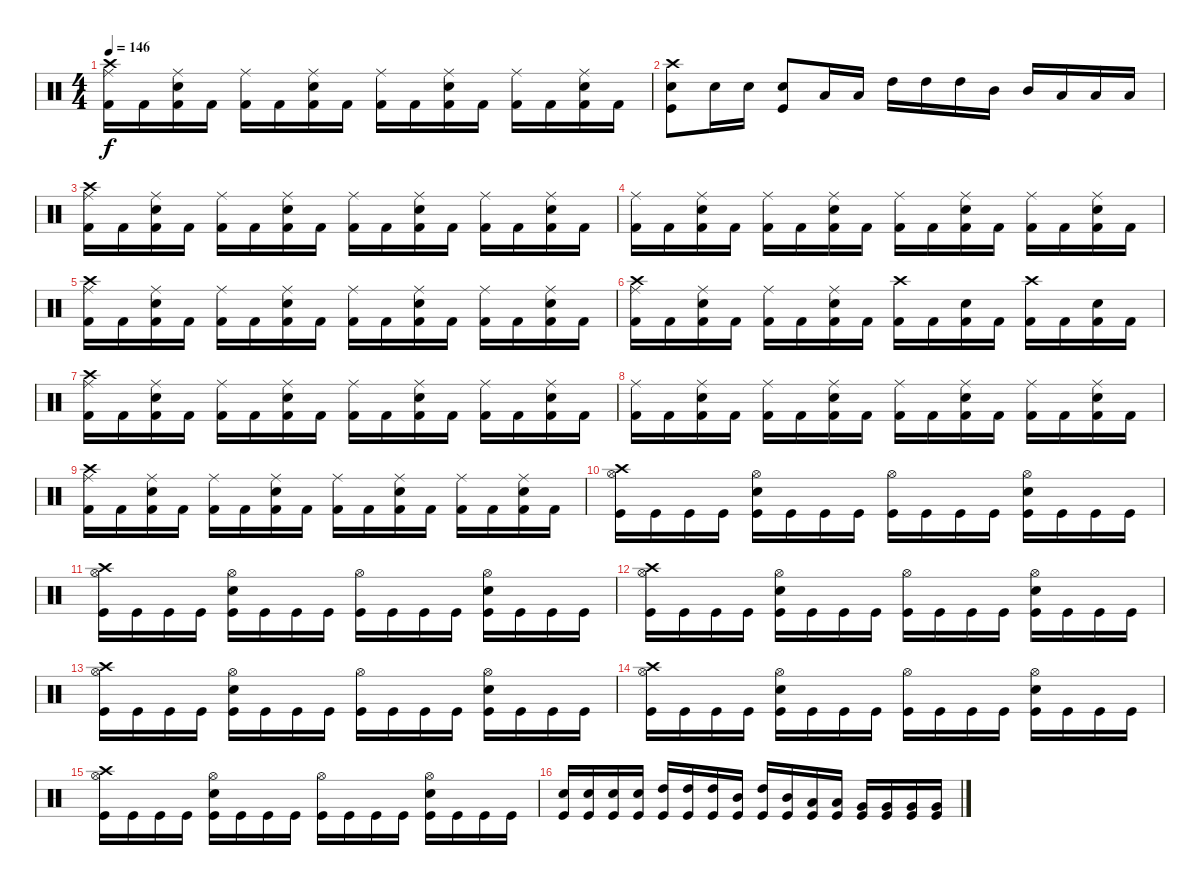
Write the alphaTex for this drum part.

\track "" {instrument percussion}
\staff {score}
\articulation defaults
\ts (4 4)
\tempo 146
\clef neutral
\ks c
("Crash high (hit)" "Ride (middle)" "Kick (hit) 2").16{dy f} "Kick (hit) 2".16 ("Electric Snare (hit)" "Ride (middle)" "Kick (hit) 2").16 "Kick (hit) 2".16 ("Ride (middle)" "Kick (hit) 2").16 "Kick (hit) 2".16 ("Electric Snare (hit)" "Ride (middle)" "Kick (hit) 2").16 "Kick (hit) 2".16 ("Ride (middle)" "Kick (hit) 2").16 "Kick (hit) 2".16 ("Electric Snare (hit)" "Ride (middle)" "Kick (hit) 2").16 "Kick (hit) 2".16 ("Ride (middle)" "Kick (hit) 2").16 "Kick (hit) 2".16 ("Electric Snare (hit)" "Ride (middle)" "Kick (hit) 2").16 "Kick (hit) 2".16 |
("Crash high (hit)" "Kick (hit)" "Snare (hit) 2").8 "Snare (hit) 2".16 "Snare (hit) 2".16 ("Snare (hit) 2" "Kick (hit)").8 "Low Tom (hit)".16 "Low Tom (hit)".16 "High Tom (hit)".16 "High Tom (hit)".16 "High Tom (hit)".16 "Mid Tom (hit)".16 "Mid Tom (hit)".16 "Low Tom (hit)".16 "Low Tom (hit)".16 "Low Tom (hit)".16 |
("Crash high (hit)" "Ride (middle)" "Kick (hit) 2").16 "Kick (hit) 2".16 ("Electric Snare (hit)" "Ride (middle)" "Kick (hit) 2").16 "Kick (hit) 2".16 ("Ride (middle)" "Kick (hit) 2").16 "Kick (hit) 2".16 ("Electric Snare (hit)" "Ride (middle)" "Kick (hit) 2").16 "Kick (hit) 2".16 ("Ride (middle)" "Kick (hit) 2").16 "Kick (hit) 2".16 ("Electric Snare (hit)" "Ride (middle)" "Kick (hit) 2").16 "Kick (hit) 2".16 ("Ride (middle)" "Kick (hit) 2").16 "Kick (hit) 2".16 ("Electric Snare (hit)" "Ride (middle)" "Kick (hit) 2").16 "Kick (hit) 2".16 |
("Ride (middle)" "Kick (hit) 2").16 "Kick (hit) 2".16 ("Electric Snare (hit)" "Ride (middle)" "Kick (hit) 2").16 "Kick (hit) 2".16 ("Ride (middle)" "Kick (hit) 2").16 "Kick (hit) 2".16 ("Electric Snare (hit)" "Ride (middle)" "Kick (hit) 2").16 "Kick (hit) 2".16 ("Ride (middle)" "Kick (hit) 2").16 "Kick (hit) 2".16 ("Electric Snare (hit)" "Ride (middle)" "Kick (hit) 2").16 "Kick (hit) 2".16 ("Ride (middle)" "Kick (hit) 2").16 "Kick (hit) 2".16 ("Electric Snare (hit)" "Ride (middle)" "Kick (hit) 2").16 "Kick (hit) 2".16 |
("Crash high (hit)" "Ride (middle)" "Kick (hit) 2").16 "Kick (hit) 2".16 ("Electric Snare (hit)" "Ride (middle)" "Kick (hit) 2").16 "Kick (hit) 2".16 ("Ride (middle)" "Kick (hit) 2").16 "Kick (hit) 2".16 ("Electric Snare (hit)" "Ride (middle)" "Kick (hit) 2").16 "Kick (hit) 2".16 ("Ride (middle)" "Kick (hit) 2").16 "Kick (hit) 2".16 ("Electric Snare (hit)" "Ride (middle)" "Kick (hit) 2").16 "Kick (hit) 2".16 ("Ride (middle)" "Kick (hit) 2").16 "Kick (hit) 2".16 ("Electric Snare (hit)" "Ride (middle)" "Kick (hit) 2").16 "Kick (hit) 2".16 |
("Crash high (hit)" "Ride (middle)" "Kick (hit) 2").16 "Kick (hit) 2".16 ("Electric Snare (hit)" "Ride (middle)" "Kick (hit) 2").16 "Kick (hit) 2".16 ("Ride (middle)" "Kick (hit) 2").16 "Kick (hit) 2".16 ("Electric Snare (hit)" "Ride (middle)" "Kick (hit) 2").16 "Kick (hit) 2".16 ("Kick (hit) 2" "Crash high (hit)").16 "Kick (hit) 2".16 ("Electric Snare (hit)" "Kick (hit) 2").16 "Kick (hit) 2".16 ("Kick (hit) 2" "Crash high (hit)").16 "Kick (hit) 2".16 ("Electric Snare (hit)" "Kick (hit) 2").16 "Kick (hit) 2".16 |
("Crash high (hit)" "Ride (middle)" "Kick (hit) 2").16 "Kick (hit) 2".16 ("Electric Snare (hit)" "Ride (middle)" "Kick (hit) 2").16 "Kick (hit) 2".16 ("Ride (middle)" "Kick (hit) 2").16 "Kick (hit) 2".16 ("Electric Snare (hit)" "Ride (middle)" "Kick (hit) 2").16 "Kick (hit) 2".16 ("Ride (middle)" "Kick (hit) 2").16 "Kick (hit) 2".16 ("Electric Snare (hit)" "Ride (middle)" "Kick (hit) 2").16 "Kick (hit) 2".16 ("Ride (middle)" "Kick (hit) 2").16 "Kick (hit) 2".16 ("Electric Snare (hit)" "Ride (middle)" "Kick (hit) 2").16 "Kick (hit) 2".16 |
("Ride (middle)" "Kick (hit) 2").16 "Kick (hit) 2".16 ("Electric Snare (hit)" "Ride (middle)" "Kick (hit) 2").16 "Kick (hit) 2".16 ("Ride (middle)" "Kick (hit) 2").16 "Kick (hit) 2".16 ("Electric Snare (hit)" "Ride (middle)" "Kick (hit) 2").16 "Kick (hit) 2".16 ("Ride (middle)" "Kick (hit) 2").16 "Kick (hit) 2".16 ("Electric Snare (hit)" "Ride (middle)" "Kick (hit) 2").16 "Kick (hit) 2".16 ("Ride (middle)" "Kick (hit) 2").16 "Kick (hit) 2".16 ("Electric Snare (hit)" "Ride (middle)" "Kick (hit) 2").16 "Kick (hit) 2".16 |
("Crash high (hit)" "Ride (middle)" "Kick (hit) 2").16 "Kick (hit) 2".16 ("Electric Snare (hit)" "Ride (middle)" "Kick (hit) 2").16 "Kick (hit) 2".16 ("Ride (middle)" "Kick (hit) 2").16 "Kick (hit) 2".16 ("Electric Snare (hit)" "Ride (middle)" "Kick (hit) 2").16 "Kick (hit) 2".16 ("Ride (middle)" "Kick (hit) 2").16 "Kick (hit) 2".16 ("Electric Snare (hit)" "Ride (middle)" "Kick (hit) 2").16 "Kick (hit) 2".16 ("Ride (middle)" "Kick (hit) 2").16 "Kick (hit) 2".16 ("Electric Snare (hit)" "Ride (middle)" "Kick (hit) 2").16 "Kick (hit) 2".16 |
("Kick (hit)" "Crash high (hit)" "Hi-Hat (open)").16 "Kick (hit)".16 "Kick (hit)".16 "Kick (hit)".16 ("Kick (hit)" "Snare (hit) 2" "Hi-Hat (open)").16 "Kick (hit)".16 "Kick (hit)".16 "Kick (hit)".16 ("Kick (hit)" "Hi-Hat (open)").16 "Kick (hit)".16 "Kick (hit)".16 "Kick (hit)".16 ("Kick (hit)" "Snare (hit) 2" "Hi-Hat (open)").16 "Kick (hit)".16 "Kick (hit)".16 "Kick (hit)".16 |
("Kick (hit)" "Crash high (hit)" "Hi-Hat (open)").16 "Kick (hit)".16 "Kick (hit)".16 "Kick (hit)".16 ("Kick (hit)" "Snare (hit) 2" "Hi-Hat (open)").16 "Kick (hit)".16 "Kick (hit)".16 "Kick (hit)".16 ("Kick (hit)" "Hi-Hat (open)").16 "Kick (hit)".16 "Kick (hit)".16 "Kick (hit)".16 ("Kick (hit)" "Snare (hit) 2" "Hi-Hat (open)").16 "Kick (hit)".16 "Kick (hit)".16 "Kick (hit)".16 |
("Kick (hit)" "Crash high (hit)" "Hi-Hat (open)").16 "Kick (hit)".16 "Kick (hit)".16 "Kick (hit)".16 ("Kick (hit)" "Snare (hit) 2" "Hi-Hat (open)").16 "Kick (hit)".16 "Kick (hit)".16 "Kick (hit)".16 ("Kick (hit)" "Hi-Hat (open)").16 "Kick (hit)".16 "Kick (hit)".16 "Kick (hit)".16 ("Kick (hit)" "Snare (hit) 2" "Hi-Hat (open)").16 "Kick (hit)".16 "Kick (hit)".16 "Kick (hit)".16 |
("Kick (hit)" "Crash high (hit)" "Hi-Hat (open)").16 "Kick (hit)".16 "Kick (hit)".16 "Kick (hit)".16 ("Kick (hit)" "Snare (hit) 2" "Hi-Hat (open)").16 "Kick (hit)".16 "Kick (hit)".16 "Kick (hit)".16 ("Kick (hit)" "Hi-Hat (open)").16 "Kick (hit)".16 "Kick (hit)".16 "Kick (hit)".16 ("Kick (hit)" "Snare (hit) 2" "Hi-Hat (open)").16 "Kick (hit)".16 "Kick (hit)".16 "Kick (hit)".16 |
("Kick (hit)" "Crash high (hit)" "Hi-Hat (open)").16 "Kick (hit)".16 "Kick (hit)".16 "Kick (hit)".16 ("Kick (hit)" "Snare (hit) 2" "Hi-Hat (open)").16 "Kick (hit)".16 "Kick (hit)".16 "Kick (hit)".16 ("Kick (hit)" "Hi-Hat (open)").16 "Kick (hit)".16 "Kick (hit)".16 "Kick (hit)".16 ("Kick (hit)" "Snare (hit) 2" "Hi-Hat (open)").16 "Kick (hit)".16 "Kick (hit)".16 "Kick (hit)".16 |
("Kick (hit)" "Crash high (hit)" "Hi-Hat (open)").16 "Kick (hit)".16 "Kick (hit)".16 "Kick (hit)".16 ("Kick (hit)" "Snare (hit) 2" "Hi-Hat (open)").16 "Kick (hit)".16 "Kick (hit)".16 "Kick (hit)".16 ("Kick (hit)" "Hi-Hat (open)").16 "Kick (hit)".16 "Kick (hit)".16 "Kick (hit)".16 ("Kick (hit)" "Snare (hit) 2" "Hi-Hat (open)").16 "Kick (hit)".16 "Kick (hit)".16 "Kick (hit)".16 |
("Snare (hit) 2" "Kick (hit)").16 ("Snare (hit) 2" "Kick (hit)").16 ("Snare (hit) 2" "Kick (hit)").16 ("Snare (hit) 2" "Kick (hit)").16 ("High Tom (hit)" "Kick (hit)").16 ("High Tom (hit)" "Kick (hit)").16 ("High Tom (hit)" "Kick (hit)").16 ("Mid Tom (hit)" "Kick (hit)").16 ("High Tom (hit)" "Kick (hit)").16 ("Mid Tom (hit)" "Kick (hit)").16 ("Low Tom (hit)" "Kick (hit)").16 ("Low Tom (hit)" "Kick (hit)").16 ("Very Low Tom (hit)" "Kick (hit)").16 ("Very Low Tom (hit)" "Kick (hit)").16 ("Very Low Tom (hit)" "Kick (hit)").16 ("Very Low Tom (hit)" "Kick (hit)").16
